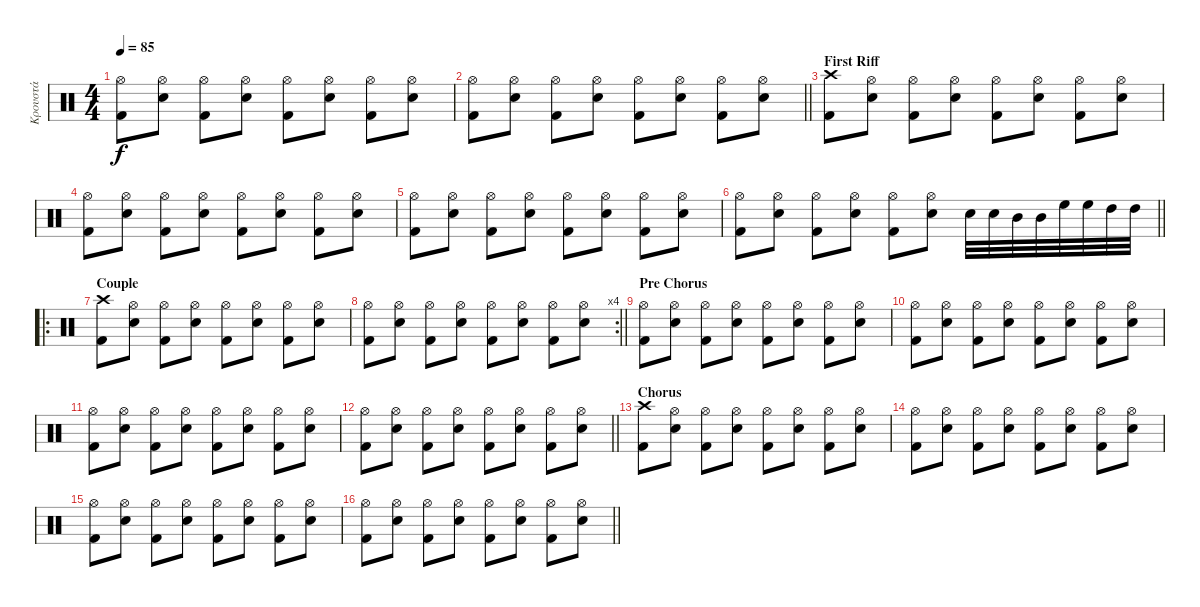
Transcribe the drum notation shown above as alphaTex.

\track ("Κρουστά" "Κρουστά") {instrument percussion}
\staff {score}
\articulation defaults
\ts (4 4)
\tempo 85
\clef neutral
\ks c
("Hi-Hat (open)" "Kick (hit) 2").8{dy f} ("Snare (hit) 2" "Hi-Hat (open)").8 ("Hi-Hat (open)" "Kick (hit) 2").8 ("Snare (hit) 2" "Hi-Hat (open)").8 ("Hi-Hat (open)" "Kick (hit) 2").8 ("Snare (hit) 2" "Hi-Hat (open)").8 ("Hi-Hat (open)" "Kick (hit) 2").8 ("Snare (hit) 2" "Hi-Hat (open)").8 |
\barLineRight lightlight
("Hi-Hat (open)" "Kick (hit) 2").8 ("Snare (hit) 2" "Hi-Hat (open)").8 ("Hi-Hat (open)" "Kick (hit) 2").8 ("Snare (hit) 2" "Hi-Hat (open)").8 ("Hi-Hat (open)" "Kick (hit) 2").8 ("Snare (hit) 2" "Hi-Hat (open)").8 ("Hi-Hat (open)" "Kick (hit) 2").8 ("Snare (hit) 2" "Hi-Hat (open)").8 |
\section ("" "First Riff")
("Crash high (hit)" "Kick (hit) 2").8 ("Snare (hit) 2" "Hi-Hat (open)").8 ("Hi-Hat (open)" "Kick (hit) 2").8 ("Snare (hit) 2" "Hi-Hat (open)").8 ("Hi-Hat (open)" "Kick (hit) 2").8 ("Snare (hit) 2" "Hi-Hat (open)").8 ("Hi-Hat (open)" "Kick (hit) 2").8 ("Snare (hit) 2" "Hi-Hat (open)").8 |
("Hi-Hat (open)" "Kick (hit) 2").8 ("Snare (hit) 2" "Hi-Hat (open)").8 ("Hi-Hat (open)" "Kick (hit) 2").8 ("Snare (hit) 2" "Hi-Hat (open)").8 ("Hi-Hat (open)" "Kick (hit) 2").8 ("Snare (hit) 2" "Hi-Hat (open)").8 ("Hi-Hat (open)" "Kick (hit) 2").8 ("Snare (hit) 2" "Hi-Hat (open)").8 |
("Hi-Hat (open)" "Kick (hit) 2").8 ("Snare (hit) 2" "Hi-Hat (open)").8 ("Hi-Hat (open)" "Kick (hit) 2").8 ("Snare (hit) 2" "Hi-Hat (open)").8 ("Hi-Hat (open)" "Kick (hit) 2").8 ("Snare (hit) 2" "Hi-Hat (open)").8 ("Hi-Hat (open)" "Kick (hit) 2").8 ("Snare (hit) 2" "Hi-Hat (open)").8 |
\barLineRight lightlight
("Hi-Hat (open)" "Kick (hit) 2").8 ("Snare (hit) 2" "Hi-Hat (open)").8 ("Hi-Hat (open)" "Kick (hit) 2").8 ("Snare (hit) 2" "Hi-Hat (open)").8 ("Hi-Hat (open)" "Kick (hit) 2").8 ("Snare (hit) 2" "Hi-Hat (open)").8 "Snare (hit) 2".32 "Snare (hit) 2".32 "Mid Tom (hit)".32 "Mid Tom (hit)".32 "High Floor Tom (hit)".32 "High Floor Tom (hit)".32 "High Tom (hit)".32 "High Tom (hit)".32 |
\ro
\section ("" "Couple")
("Crash high (hit)" "Kick (hit) 2").8 ("Snare (hit) 2" "Hi-Hat (open)").8 ("Hi-Hat (open)" "Kick (hit) 2").8 ("Snare (hit) 2" "Hi-Hat (open)").8 ("Hi-Hat (open)" "Kick (hit) 2").8 ("Snare (hit) 2" "Hi-Hat (open)").8 ("Hi-Hat (open)" "Kick (hit) 2").8 ("Snare (hit) 2" "Hi-Hat (open)").8 |
\rc 4
\barLineRight lightlight
("Hi-Hat (open)" "Kick (hit) 2").8 ("Snare (hit) 2" "Hi-Hat (open)").8 ("Hi-Hat (open)" "Kick (hit) 2").8 ("Snare (hit) 2" "Hi-Hat (open)").8 ("Hi-Hat (open)" "Kick (hit) 2").8 ("Snare (hit) 2" "Hi-Hat (open)").8 ("Hi-Hat (open)" "Kick (hit) 2").8 ("Snare (hit) 2" "Hi-Hat (open)").8 |
\section ("" "Pre Chorus")
("Hi-Hat (open)" "Kick (hit) 2").8 ("Snare (hit) 2" "Hi-Hat (open)").8 ("Hi-Hat (open)" "Kick (hit) 2").8 ("Snare (hit) 2" "Hi-Hat (open)").8 ("Hi-Hat (open)" "Kick (hit) 2").8 ("Snare (hit) 2" "Hi-Hat (open)").8 ("Hi-Hat (open)" "Kick (hit) 2").8 ("Snare (hit) 2" "Hi-Hat (open)").8 |
("Hi-Hat (open)" "Kick (hit) 2").8 ("Snare (hit) 2" "Hi-Hat (open)").8 ("Hi-Hat (open)" "Kick (hit) 2").8 ("Snare (hit) 2" "Hi-Hat (open)").8 ("Hi-Hat (open)" "Kick (hit) 2").8 ("Snare (hit) 2" "Hi-Hat (open)").8 ("Hi-Hat (open)" "Kick (hit) 2").8 ("Snare (hit) 2" "Hi-Hat (open)").8 |
("Hi-Hat (open)" "Kick (hit) 2").8 ("Snare (hit) 2" "Hi-Hat (open)").8 ("Hi-Hat (open)" "Kick (hit) 2").8 ("Snare (hit) 2" "Hi-Hat (open)").8 ("Hi-Hat (open)" "Kick (hit) 2").8 ("Snare (hit) 2" "Hi-Hat (open)").8 ("Hi-Hat (open)" "Kick (hit) 2").8 ("Snare (hit) 2" "Hi-Hat (open)").8 |
\barLineRight lightlight
("Hi-Hat (open)" "Kick (hit) 2").8 ("Snare (hit) 2" "Hi-Hat (open)").8 ("Hi-Hat (open)" "Kick (hit) 2").8 ("Snare (hit) 2" "Hi-Hat (open)").8 ("Hi-Hat (open)" "Kick (hit) 2").8 ("Snare (hit) 2" "Hi-Hat (open)").8 ("Hi-Hat (open)" "Kick (hit) 2").8 ("Snare (hit) 2" "Hi-Hat (open)").8 |
\section ("" "Chorus")
("Crash high (hit)" "Kick (hit) 2").8 ("Snare (hit) 2" "Hi-Hat (open)").8 ("Hi-Hat (open)" "Kick (hit) 2").8 ("Snare (hit) 2" "Hi-Hat (open)").8 ("Hi-Hat (open)" "Kick (hit) 2").8 ("Snare (hit) 2" "Hi-Hat (open)").8 ("Hi-Hat (open)" "Kick (hit) 2").8 ("Snare (hit) 2" "Hi-Hat (open)").8 |
("Hi-Hat (open)" "Kick (hit) 2").8 ("Snare (hit) 2" "Hi-Hat (open)").8 ("Hi-Hat (open)" "Kick (hit) 2").8 ("Snare (hit) 2" "Hi-Hat (open)").8 ("Hi-Hat (open)" "Kick (hit) 2").8 ("Snare (hit) 2" "Hi-Hat (open)").8 ("Hi-Hat (open)" "Kick (hit) 2").8 ("Snare (hit) 2" "Hi-Hat (open)").8 |
("Hi-Hat (open)" "Kick (hit) 2").8 ("Snare (hit) 2" "Hi-Hat (open)").8 ("Hi-Hat (open)" "Kick (hit) 2").8 ("Snare (hit) 2" "Hi-Hat (open)").8 ("Hi-Hat (open)" "Kick (hit) 2").8 ("Snare (hit) 2" "Hi-Hat (open)").8 ("Hi-Hat (open)" "Kick (hit) 2").8 ("Snare (hit) 2" "Hi-Hat (open)").8 |
\barLineRight lightlight
("Hi-Hat (open)" "Kick (hit) 2").8 ("Snare (hit) 2" "Hi-Hat (open)").8 ("Hi-Hat (open)" "Kick (hit) 2").8 ("Snare (hit) 2" "Hi-Hat (open)").8 ("Hi-Hat (open)" "Kick (hit) 2").8 ("Snare (hit) 2" "Hi-Hat (open)").8 ("Hi-Hat (open)" "Kick (hit) 2").8 ("Snare (hit) 2" "Hi-Hat (open)").8
